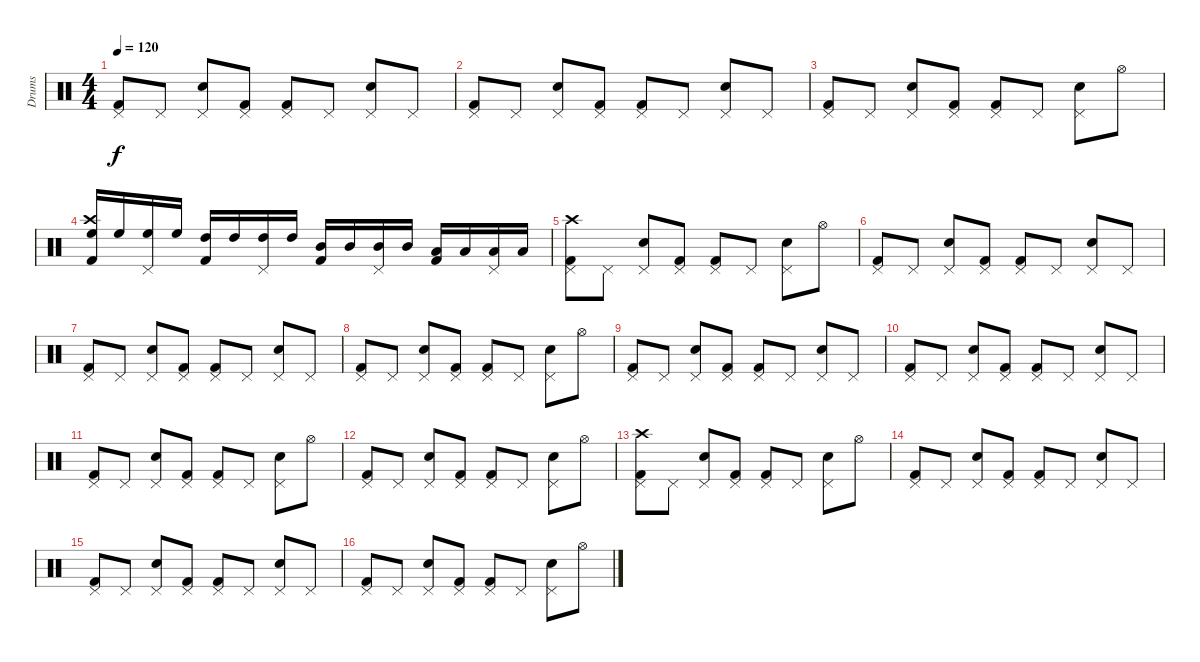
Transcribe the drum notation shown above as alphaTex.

\track ("Drums" "Drums") {instrument percussion}
\staff {score}
\articulation defaults
\ts (4 4)
\tempo 120
\clef neutral
\ks c
("Pedal Hi-Hat (hit)" "Kick (hit) 2").8{dy f} "Pedal Hi-Hat (hit)".8 ("Pedal Hi-Hat (hit)" "Snare (hit) 2").8 ("Pedal Hi-Hat (hit)" "Kick (hit) 2").8 ("Pedal Hi-Hat (hit)" "Kick (hit) 2").8 "Pedal Hi-Hat (hit)".8 ("Pedal Hi-Hat (hit)" "Snare (hit) 2").8 "Pedal Hi-Hat (hit)".8 |
("Pedal Hi-Hat (hit)" "Kick (hit) 2").8 "Pedal Hi-Hat (hit)".8 ("Pedal Hi-Hat (hit)" "Snare (hit) 2").8 ("Pedal Hi-Hat (hit)" "Kick (hit) 2").8 ("Pedal Hi-Hat (hit)" "Kick (hit) 2").8 "Pedal Hi-Hat (hit)".8 ("Pedal Hi-Hat (hit)" "Snare (hit) 2").8 "Pedal Hi-Hat (hit)".8 |
("Pedal Hi-Hat (hit)" "Kick (hit) 2").8 "Pedal Hi-Hat (hit)".8 ("Pedal Hi-Hat (hit)" "Snare (hit) 2").8 ("Pedal Hi-Hat (hit)" "Kick (hit) 2").8 ("Pedal Hi-Hat (hit)" "Kick (hit) 2").8 "Pedal Hi-Hat (hit)".8 ("Pedal Hi-Hat (hit)" "Snare (hit) 2").8 "Hi-Hat (open)".8 |
("Crash high (hit)" "High Floor Tom (hit)" "Kick (hit) 2").16 "High Floor Tom (hit)".16 ("Pedal Hi-Hat (hit)" "High Floor Tom (hit)").16 "High Floor Tom (hit)".16 ("High Tom (hit)" "Kick (hit) 2").16 "High Tom (hit)".16 ("Pedal Hi-Hat (hit)" "High Tom (hit)").16 "High Tom (hit)".16 ("Mid Tom (hit)" "Kick (hit) 2").16 "Mid Tom (hit)".16 ("Pedal Hi-Hat (hit)" "Mid Tom (hit)").16 "Mid Tom (hit)".16 ("Low Tom (hit)" "Kick (hit) 2").16 "Low Tom (hit)".16 ("Pedal Hi-Hat (hit)" "Low Tom (hit)").16 "Low Tom (hit)".16 |
("Crash high (hit)" "Pedal Hi-Hat (hit)" "Kick (hit) 2").8 "Pedal Hi-Hat (hit)".8 ("Pedal Hi-Hat (hit)" "Snare (hit) 2").8 ("Pedal Hi-Hat (hit)" "Kick (hit) 2").8 ("Pedal Hi-Hat (hit)" "Kick (hit) 2").8 "Pedal Hi-Hat (hit)".8 ("Pedal Hi-Hat (hit)" "Snare (hit) 2").8 "Hi-Hat (open)".8 |
("Pedal Hi-Hat (hit)" "Kick (hit) 2").8 "Pedal Hi-Hat (hit)".8 ("Pedal Hi-Hat (hit)" "Snare (hit) 2").8 ("Pedal Hi-Hat (hit)" "Kick (hit) 2").8 ("Pedal Hi-Hat (hit)" "Kick (hit) 2").8 "Pedal Hi-Hat (hit)".8 ("Pedal Hi-Hat (hit)" "Snare (hit) 2").8 "Pedal Hi-Hat (hit)".8 |
("Pedal Hi-Hat (hit)" "Kick (hit) 2").8 "Pedal Hi-Hat (hit)".8 ("Pedal Hi-Hat (hit)" "Snare (hit) 2").8 ("Pedal Hi-Hat (hit)" "Kick (hit) 2").8 ("Pedal Hi-Hat (hit)" "Kick (hit) 2").8 "Pedal Hi-Hat (hit)".8 ("Pedal Hi-Hat (hit)" "Snare (hit) 2").8 "Pedal Hi-Hat (hit)".8 |
("Pedal Hi-Hat (hit)" "Kick (hit) 2").8 "Pedal Hi-Hat (hit)".8 ("Pedal Hi-Hat (hit)" "Snare (hit) 2").8 ("Pedal Hi-Hat (hit)" "Kick (hit) 2").8 ("Pedal Hi-Hat (hit)" "Kick (hit) 2").8 "Pedal Hi-Hat (hit)".8 ("Pedal Hi-Hat (hit)" "Snare (hit) 2").8 "Hi-Hat (open)".8 |
("Pedal Hi-Hat (hit)" "Kick (hit) 2").8 "Pedal Hi-Hat (hit)".8 ("Pedal Hi-Hat (hit)" "Snare (hit) 2").8 ("Pedal Hi-Hat (hit)" "Kick (hit) 2").8 ("Pedal Hi-Hat (hit)" "Kick (hit) 2").8 "Pedal Hi-Hat (hit)".8 ("Pedal Hi-Hat (hit)" "Snare (hit) 2").8 "Pedal Hi-Hat (hit)".8 |
("Pedal Hi-Hat (hit)" "Kick (hit) 2").8 "Pedal Hi-Hat (hit)".8 ("Pedal Hi-Hat (hit)" "Snare (hit) 2").8 ("Pedal Hi-Hat (hit)" "Kick (hit) 2").8 ("Pedal Hi-Hat (hit)" "Kick (hit) 2").8 "Pedal Hi-Hat (hit)".8 ("Pedal Hi-Hat (hit)" "Snare (hit) 2").8 "Pedal Hi-Hat (hit)".8 |
("Pedal Hi-Hat (hit)" "Kick (hit) 2").8 "Pedal Hi-Hat (hit)".8 ("Pedal Hi-Hat (hit)" "Snare (hit) 2").8 ("Pedal Hi-Hat (hit)" "Kick (hit) 2").8 ("Pedal Hi-Hat (hit)" "Kick (hit) 2").8 "Pedal Hi-Hat (hit)".8 ("Pedal Hi-Hat (hit)" "Snare (hit) 2").8 "Hi-Hat (open)".8 |
("Pedal Hi-Hat (hit)" "Kick (hit) 2").8 "Pedal Hi-Hat (hit)".8 ("Pedal Hi-Hat (hit)" "Snare (hit) 2").8 ("Pedal Hi-Hat (hit)" "Kick (hit) 2").8 ("Pedal Hi-Hat (hit)" "Kick (hit) 2").8 "Pedal Hi-Hat (hit)".8 ("Pedal Hi-Hat (hit)" "Snare (hit) 2").8 "Hi-Hat (open)".8 |
("Crash high (hit)" "Pedal Hi-Hat (hit)" "Kick (hit) 2").8 "Pedal Hi-Hat (hit)".8 ("Pedal Hi-Hat (hit)" "Snare (hit) 2").8 ("Pedal Hi-Hat (hit)" "Kick (hit) 2").8 ("Pedal Hi-Hat (hit)" "Kick (hit) 2").8 "Pedal Hi-Hat (hit)".8 ("Pedal Hi-Hat (hit)" "Snare (hit) 2").8 "Hi-Hat (open)".8 |
("Pedal Hi-Hat (hit)" "Kick (hit) 2").8 "Pedal Hi-Hat (hit)".8 ("Pedal Hi-Hat (hit)" "Snare (hit) 2").8 ("Pedal Hi-Hat (hit)" "Kick (hit) 2").8 ("Pedal Hi-Hat (hit)" "Kick (hit) 2").8 "Pedal Hi-Hat (hit)".8 ("Pedal Hi-Hat (hit)" "Snare (hit) 2").8 "Pedal Hi-Hat (hit)".8 |
("Pedal Hi-Hat (hit)" "Kick (hit) 2").8 "Pedal Hi-Hat (hit)".8 ("Pedal Hi-Hat (hit)" "Snare (hit) 2").8 ("Pedal Hi-Hat (hit)" "Kick (hit) 2").8 ("Pedal Hi-Hat (hit)" "Kick (hit) 2").8 "Pedal Hi-Hat (hit)".8 ("Pedal Hi-Hat (hit)" "Snare (hit) 2").8 "Pedal Hi-Hat (hit)".8 |
("Pedal Hi-Hat (hit)" "Kick (hit) 2").8 "Pedal Hi-Hat (hit)".8 ("Pedal Hi-Hat (hit)" "Snare (hit) 2").8 ("Pedal Hi-Hat (hit)" "Kick (hit) 2").8 ("Pedal Hi-Hat (hit)" "Kick (hit) 2").8 "Pedal Hi-Hat (hit)".8 ("Pedal Hi-Hat (hit)" "Snare (hit) 2").8 "Hi-Hat (open)".8
